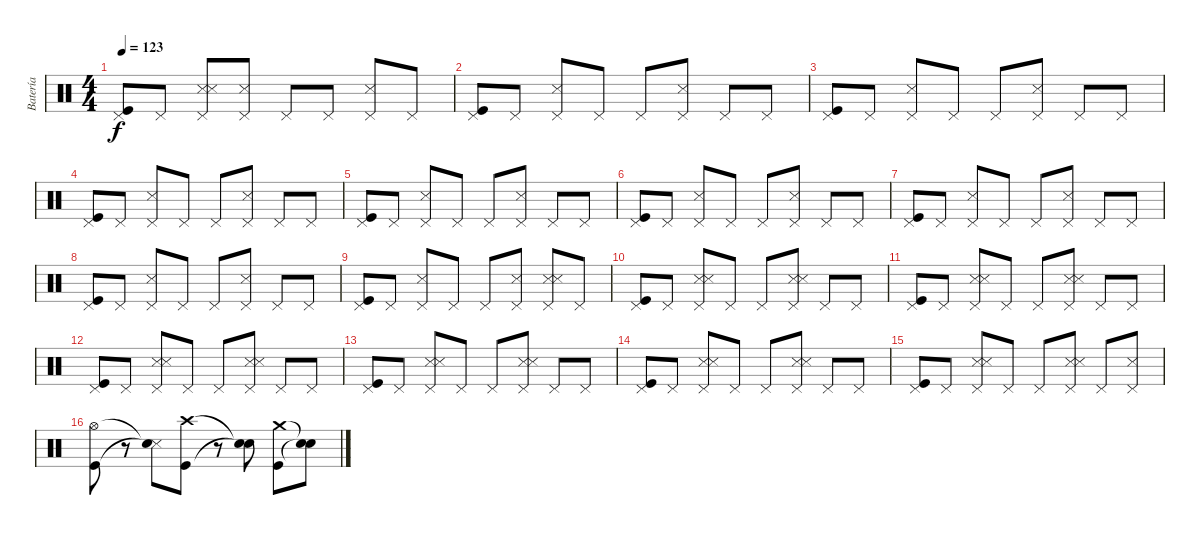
\track ("Batería" "Batería") {instrument percussion}
\staff {score}
\articulation defaults
\ts (4 4)
\tempo 123
\clef neutral
\ks c
("Pedal Hi-Hat (hit)" "Kick (hit)").8{dy f} "Pedal Hi-Hat (hit)".8 ("Pedal Hi-Hat (hit)" "Snare (side stick) 3" "Snare (side stick) 3").8 ("Pedal Hi-Hat (hit)" "Snare (side stick) 3").8 "Pedal Hi-Hat (hit)".8 "Pedal Hi-Hat (hit)".8 ("Pedal Hi-Hat (hit)" "Snare (side stick) 3").8 "Pedal Hi-Hat (hit)".8 |
("Pedal Hi-Hat (hit)" "Kick (hit)").8 "Pedal Hi-Hat (hit)".8 ("Pedal Hi-Hat (hit)" "Snare (side stick) 3").8 "Pedal Hi-Hat (hit)".8 "Pedal Hi-Hat (hit)".8 ("Pedal Hi-Hat (hit)" "Snare (side stick) 3").8 "Pedal Hi-Hat (hit)".8 "Pedal Hi-Hat (hit)".8 |
("Pedal Hi-Hat (hit)" "Kick (hit)").8 "Pedal Hi-Hat (hit)".8 ("Pedal Hi-Hat (hit)" "Snare (side stick) 3").8 "Pedal Hi-Hat (hit)".8 "Pedal Hi-Hat (hit)".8 ("Pedal Hi-Hat (hit)" "Snare (side stick) 3").8 "Pedal Hi-Hat (hit)".8 "Pedal Hi-Hat (hit)".8 |
("Pedal Hi-Hat (hit)" "Kick (hit)").8 "Pedal Hi-Hat (hit)".8 ("Pedal Hi-Hat (hit)" "Snare (side stick) 3").8 "Pedal Hi-Hat (hit)".8 "Pedal Hi-Hat (hit)".8 ("Pedal Hi-Hat (hit)" "Snare (side stick) 3").8 "Pedal Hi-Hat (hit)".8 "Pedal Hi-Hat (hit)".8 |
("Pedal Hi-Hat (hit)" "Kick (hit)").8 "Pedal Hi-Hat (hit)".8 ("Pedal Hi-Hat (hit)" "Snare (side stick) 3").8 "Pedal Hi-Hat (hit)".8 "Pedal Hi-Hat (hit)".8 ("Pedal Hi-Hat (hit)" "Snare (side stick) 3").8 "Pedal Hi-Hat (hit)".8 "Pedal Hi-Hat (hit)".8 |
("Pedal Hi-Hat (hit)" "Kick (hit)").8 "Pedal Hi-Hat (hit)".8 ("Pedal Hi-Hat (hit)" "Snare (side stick) 3").8 "Pedal Hi-Hat (hit)".8 "Pedal Hi-Hat (hit)".8 ("Pedal Hi-Hat (hit)" "Snare (side stick) 3").8 "Pedal Hi-Hat (hit)".8 "Pedal Hi-Hat (hit)".8 |
("Pedal Hi-Hat (hit)" "Kick (hit)").8 "Pedal Hi-Hat (hit)".8 ("Pedal Hi-Hat (hit)" "Snare (side stick) 3").8 "Pedal Hi-Hat (hit)".8 "Pedal Hi-Hat (hit)".8 ("Pedal Hi-Hat (hit)" "Snare (side stick) 3").8 "Pedal Hi-Hat (hit)".8 "Pedal Hi-Hat (hit)".8 |
("Pedal Hi-Hat (hit)" "Kick (hit)").8 "Pedal Hi-Hat (hit)".8 ("Pedal Hi-Hat (hit)" "Snare (side stick) 3").8 "Pedal Hi-Hat (hit)".8 "Pedal Hi-Hat (hit)".8 ("Pedal Hi-Hat (hit)" "Snare (side stick) 3").8 "Pedal Hi-Hat (hit)".8 "Pedal Hi-Hat (hit)".8 |
("Pedal Hi-Hat (hit)" "Kick (hit)").8 "Pedal Hi-Hat (hit)".8 ("Pedal Hi-Hat (hit)" "Snare (side stick) 3").8 "Pedal Hi-Hat (hit)".8 "Pedal Hi-Hat (hit)".8 ("Pedal Hi-Hat (hit)" "Snare (side stick) 3").8 ("Pedal Hi-Hat (hit)" "Snare (side stick) 3" "Snare (side stick) 3").8 "Pedal Hi-Hat (hit)".8 |
("Pedal Hi-Hat (hit)" "Kick (hit)").8 "Pedal Hi-Hat (hit)".8 ("Pedal Hi-Hat (hit)" "Snare (side stick) 3" "Snare (side stick) 3").8 "Pedal Hi-Hat (hit)".8 "Pedal Hi-Hat (hit)".8 ("Pedal Hi-Hat (hit)" "Snare (side stick) 3" "Snare (side stick) 3").8 "Pedal Hi-Hat (hit)".8 "Pedal Hi-Hat (hit)".8 |
("Pedal Hi-Hat (hit)" "Kick (hit)").8 "Pedal Hi-Hat (hit)".8 ("Pedal Hi-Hat (hit)" "Snare (side stick) 3" "Snare (side stick) 3").8 "Pedal Hi-Hat (hit)".8 "Pedal Hi-Hat (hit)".8 ("Pedal Hi-Hat (hit)" "Snare (side stick) 3" "Snare (side stick) 3").8 "Pedal Hi-Hat (hit)".8 "Pedal Hi-Hat (hit)".8 |
("Pedal Hi-Hat (hit)" "Kick (hit)").8 "Pedal Hi-Hat (hit)".8 ("Pedal Hi-Hat (hit)" "Snare (side stick) 3" "Snare (side stick) 3").8 "Pedal Hi-Hat (hit)".8 "Pedal Hi-Hat (hit)".8 ("Pedal Hi-Hat (hit)" "Snare (side stick) 3" "Snare (side stick) 3").8 "Pedal Hi-Hat (hit)".8 "Pedal Hi-Hat (hit)".8 |
("Pedal Hi-Hat (hit)" "Kick (hit)").8 "Pedal Hi-Hat (hit)".8 ("Pedal Hi-Hat (hit)" "Snare (side stick) 3" "Snare (side stick) 3").8 "Pedal Hi-Hat (hit)".8 "Pedal Hi-Hat (hit)".8 ("Pedal Hi-Hat (hit)" "Snare (side stick) 3" "Snare (side stick) 3").8 "Pedal Hi-Hat (hit)".8 "Pedal Hi-Hat (hit)".8 |
("Pedal Hi-Hat (hit)" "Kick (hit)").8 "Pedal Hi-Hat (hit)".8 ("Pedal Hi-Hat (hit)" "Snare (side stick) 3" "Snare (side stick) 3").8 "Pedal Hi-Hat (hit)".8 "Pedal Hi-Hat (hit)".8 ("Pedal Hi-Hat (hit)" "Snare (side stick) 3" "Snare (side stick) 3").8 "Pedal Hi-Hat (hit)".8 "Pedal Hi-Hat (hit)".8 |
("Pedal Hi-Hat (hit)" "Kick (hit)").8 "Pedal Hi-Hat (hit)".8 ("Pedal Hi-Hat (hit)" "Snare (side stick) 3" "Snare (side stick) 3").8 "Pedal Hi-Hat (hit)".8 "Pedal Hi-Hat (hit)".8 ("Pedal Hi-Hat (hit)" "Snare (side stick) 3" "Snare (side stick) 3").8 "Pedal Hi-Hat (hit)".8 ("Pedal Hi-Hat (hit)" "Snare (side stick) 3").8 |
("Hi-Hat (open)" "Kick (hit)").8 r.8 ("Snare (side stick) 3"{t} "Snare (hit)"{t}).8 ("Crash high (hit)" "Kick (hit)").8 r.8 ("Snare (hit)"{t} "Snare (hit)"{t}).8 ("Crash medium (hit)" "Kick (hit)").8 ("Snare (hit)"{t} "Snare (hit)"{t}).8
